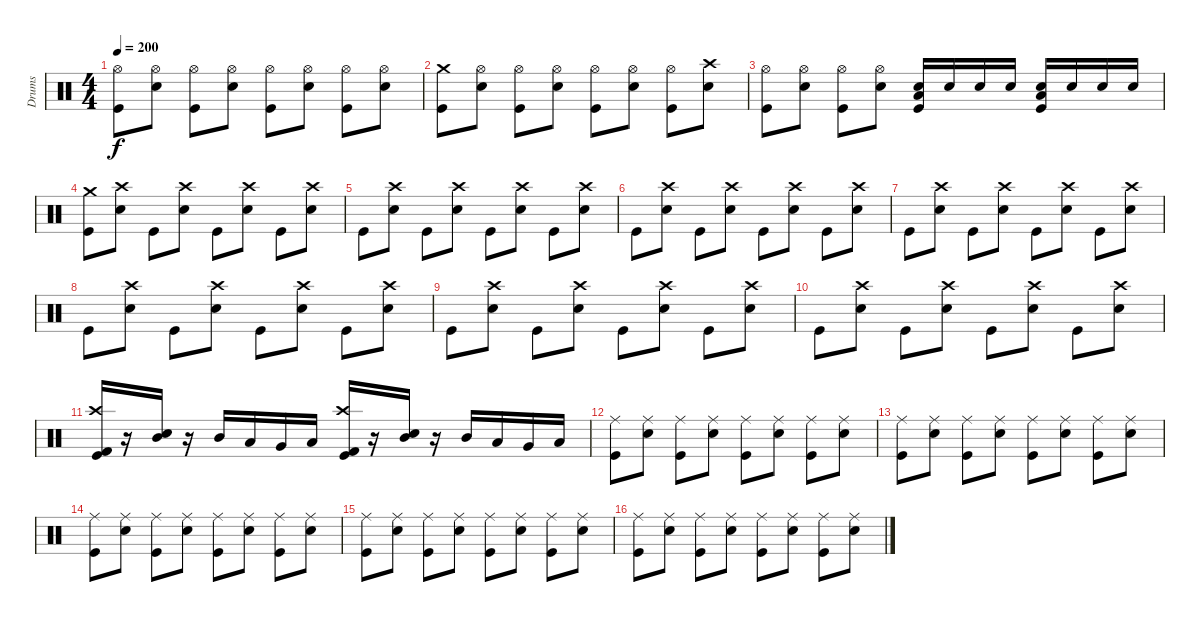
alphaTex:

\track ("Drums" "Drums") {instrument percussion}
\staff {score}
\articulation defaults
\ts (4 4)
\tempo 200
\clef neutral
\ks c
("Hi-Hat (open)" "Kick (hit)").8{dy f} ("Hi-Hat (open)" "Electric Snare (hit)").8 ("Hi-Hat (open)" "Kick (hit)").8 ("Hi-Hat (open)" "Electric Snare (hit)").8 ("Hi-Hat (open)" "Kick (hit)").8 ("Hi-Hat (open)" "Electric Snare (hit)").8 ("Hi-Hat (open)" "Kick (hit)").8 ("Hi-Hat (open)" "Electric Snare (hit)").8 |
("Crash medium (hit)" "Kick (hit)").8 ("Hi-Hat (open)" "Electric Snare (hit)").8 ("Hi-Hat (open)" "Kick (hit)").8 ("Hi-Hat (open)" "Electric Snare (hit)").8 ("Hi-Hat (open)" "Kick (hit)").8 ("Hi-Hat (open)" "Electric Snare (hit)").8 ("Hi-Hat (open)" "Kick (hit)").8 ("Crash high (hit)" "Electric Snare (hit)").8 |
("Hi-Hat (open)" "Kick (hit)").8 ("Hi-Hat (open)" "Electric Snare (hit)").8 ("Hi-Hat (open)" "Kick (hit)").8 ("Hi-Hat (open)" "Electric Snare (hit)").8 ("Kick (hit)" "Low Tom (hit)" "Electric Snare (hit)").16 "Electric Snare (hit)".16 "Electric Snare (hit)".16 "Electric Snare (hit)".16 ("Kick (hit)" "Low Tom (hit)" "Electric Snare (hit)").16 "Electric Snare (hit)".16 "Electric Snare (hit)".16 "Electric Snare (hit)".16 |
("Crash medium (hit)" "Kick (hit)").8 ("Electric Snare (hit)" "Crash high (hit)").8 "Kick (hit)".8 ("Electric Snare (hit)" "Crash high (hit)").8 "Kick (hit)".8 ("Electric Snare (hit)" "Crash high (hit)").8 "Kick (hit)".8 ("Electric Snare (hit)" "Crash high (hit)").8 |
"Kick (hit)".8 ("Electric Snare (hit)" "Crash high (hit)").8 "Kick (hit)".8 ("Electric Snare (hit)" "Crash high (hit)").8 "Kick (hit)".8 ("Electric Snare (hit)" "Crash high (hit)").8 "Kick (hit)".8 ("Electric Snare (hit)" "Crash high (hit)").8 |
"Kick (hit)".8 ("Electric Snare (hit)" "Crash high (hit)").8 "Kick (hit)".8 ("Electric Snare (hit)" "Crash high (hit)").8 "Kick (hit)".8 ("Electric Snare (hit)" "Crash high (hit)").8 "Kick (hit)".8 ("Electric Snare (hit)" "Crash high (hit)").8 |
"Kick (hit)".8 ("Electric Snare (hit)" "Crash high (hit)").8 "Kick (hit)".8 ("Electric Snare (hit)" "Crash high (hit)").8 "Kick (hit)".8 ("Electric Snare (hit)" "Crash high (hit)").8 "Kick (hit)".8 ("Electric Snare (hit)" "Crash high (hit)").8 |
"Kick (hit)".8 ("Electric Snare (hit)" "Crash high (hit)").8 "Kick (hit)".8 ("Electric Snare (hit)" "Crash high (hit)").8 "Kick (hit)".8 ("Electric Snare (hit)" "Crash high (hit)").8 "Kick (hit)".8 ("Electric Snare (hit)" "Crash high (hit)").8 |
"Kick (hit)".8 ("Electric Snare (hit)" "Crash high (hit)").8 "Kick (hit)".8 ("Electric Snare (hit)" "Crash high (hit)").8 "Kick (hit)".8 ("Electric Snare (hit)" "Crash high (hit)").8 "Kick (hit)".8 ("Electric Snare (hit)" "Crash high (hit)").8 |
"Kick (hit)".8 ("Electric Snare (hit)" "Crash high (hit)").8 "Kick (hit)".8 ("Electric Snare (hit)" "Crash high (hit)").8 "Kick (hit)".8 ("Electric Snare (hit)" "Crash high (hit)").8 "Kick (hit)".8 ("Electric Snare (hit)" "Crash high (hit)").8 |
("Crash high (hit)" "Kick (hit) 2" "Kick (hit)").16 r.16 ("Mid Tom (hit)" "Electric Snare (hit)").16 r.16 "Mid Tom (hit)".16 "Low Tom (hit)".16 "Very Low Tom (hit)".16 "Low Floor Tom (hit)".16 ("Kick (hit) 2" "Crash high (hit)" "Kick (hit)").16 r.16 ("Mid Tom (hit)" "Electric Snare (hit)").16 r.16 "Mid Tom (hit)".16 "Low Tom (hit)".16 "Very Low Tom (hit)".16 "Low Floor Tom (hit)".16 |
("Ride (middle)" "Kick (hit)").8 ("Ride (middle)" "Electric Snare (hit)").8 ("Ride (middle)" "Kick (hit)").8 ("Ride (middle)" "Electric Snare (hit)").8 ("Ride (middle)" "Kick (hit)").8 ("Ride (middle)" "Electric Snare (hit)").8 ("Ride (middle)" "Kick (hit)").8 ("Ride (middle)" "Electric Snare (hit)").8 |
("Ride (middle)" "Kick (hit)").8 ("Ride (middle)" "Electric Snare (hit)").8 ("Ride (middle)" "Kick (hit)").8 ("Ride (middle)" "Electric Snare (hit)").8 ("Ride (middle)" "Kick (hit)").8 ("Ride (middle)" "Electric Snare (hit)").8 ("Ride (middle)" "Kick (hit)").8 ("Ride (middle)" "Electric Snare (hit)").8 |
("Ride (middle)" "Kick (hit)").8 ("Ride (middle)" "Electric Snare (hit)").8 ("Ride (middle)" "Kick (hit)").8 ("Ride (middle)" "Electric Snare (hit)").8 ("Ride (middle)" "Kick (hit)").8 ("Ride (middle)" "Electric Snare (hit)").8 ("Ride (middle)" "Kick (hit)").8 ("Ride (middle)" "Electric Snare (hit)").8 |
("Ride (middle)" "Kick (hit)").8 ("Ride (middle)" "Electric Snare (hit)").8 ("Ride (middle)" "Kick (hit)").8 ("Ride (middle)" "Electric Snare (hit)").8 ("Ride (middle)" "Kick (hit)").8 ("Ride (middle)" "Electric Snare (hit)").8 ("Ride (middle)" "Kick (hit)").8 ("Ride (middle)" "Electric Snare (hit)").8 |
("Ride (middle)" "Kick (hit)").8 ("Ride (middle)" "Electric Snare (hit)").8 ("Ride (middle)" "Kick (hit)").8 ("Ride (middle)" "Electric Snare (hit)").8 ("Ride (middle)" "Kick (hit)").8 ("Ride (middle)" "Electric Snare (hit)").8 ("Ride (middle)" "Kick (hit)").8 ("Ride (middle)" "Electric Snare (hit)").8
